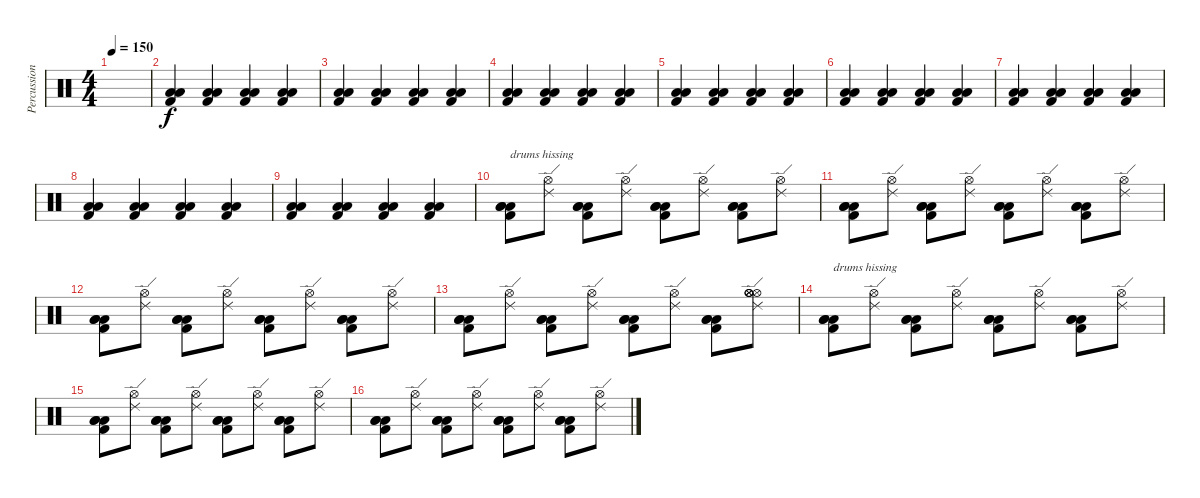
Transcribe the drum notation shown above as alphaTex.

\track ("Percussion" "Percussion") {instrument percussion}
\staff {score}
\articulation defaults
\ts (4 4)
\tempo 150
\clef neutral
\ks c
|
("Kick (hit) 2" "Low Tom (hit)" "Low Tom (hit)").4 ("Kick (hit) 2" "Low Tom (hit)" "Low Tom (hit)").4 ("Kick (hit) 2" "Low Tom (hit)" "Low Tom (hit)").4 ("Kick (hit) 2" "Low Tom (hit)" "Low Tom (hit)").4 |
("Kick (hit) 2" "Low Tom (hit)" "Low Tom (hit)").4 ("Kick (hit) 2" "Low Tom (hit)" "Low Tom (hit)").4 ("Kick (hit) 2" "Low Tom (hit)" "Low Tom (hit)").4 ("Kick (hit) 2" "Low Tom (hit)" "Low Tom (hit)").4 |
("Kick (hit) 2" "Low Tom (hit)" "Low Tom (hit)").4 ("Kick (hit) 2" "Low Tom (hit)" "Low Tom (hit)").4 ("Kick (hit) 2" "Low Tom (hit)" "Low Tom (hit)").4 ("Kick (hit) 2" "Low Tom (hit)" "Low Tom (hit)").4 |
("Kick (hit) 2" "Low Tom (hit)" "Low Tom (hit)").4 ("Kick (hit) 2" "Low Tom (hit)" "Low Tom (hit)").4 ("Kick (hit) 2" "Low Tom (hit)" "Low Tom (hit)").4 ("Kick (hit) 2" "Low Tom (hit)" "Low Tom (hit)").4 |
("Kick (hit) 2" "Low Tom (hit)" "Low Tom (hit)").4 ("Kick (hit) 2" "Low Tom (hit)" "Low Tom (hit)").4 ("Kick (hit) 2" "Low Tom (hit)" "Low Tom (hit)").4 ("Kick (hit) 2" "Low Tom (hit)" "Low Tom (hit)").4 |
("Kick (hit) 2" "Low Tom (hit)" "Low Tom (hit)").4 ("Kick (hit) 2" "Low Tom (hit)" "Low Tom (hit)").4 ("Kick (hit) 2" "Low Tom (hit)" "Low Tom (hit)").4 ("Kick (hit) 2" "Low Tom (hit)" "Low Tom (hit)").4 |
("Kick (hit) 2" "Low Tom (hit)" "Low Tom (hit)").4 ("Kick (hit) 2" "Low Tom (hit)" "Low Tom (hit)").4 ("Kick (hit) 2" "Low Tom (hit)" "Low Tom (hit)").4 ("Kick (hit) 2" "Low Tom (hit)" "Low Tom (hit)").4 |
("Kick (hit) 2" "Low Tom (hit)" "Low Tom (hit)").4 ("Kick (hit) 2" "Low Tom (hit)" "Low Tom (hit)").4 ("Kick (hit) 2" "Low Tom (hit)" "Low Tom (hit)").4 ("Kick (hit) 2" "Low Tom (hit)" "Low Tom (hit)").4 |
("Kick (hit) 2" "Low Tom (hit)" "Low Tom (hit)" "Low Tom (hit)").8{txt "drums hissing"} ("Ride (edge) 2" "Hi-Hat (open)").8 ("Kick (hit) 2" "Low Tom (hit)" "Low Tom (hit)" "Low Tom (hit)").8 ("Ride (edge) 2" "Hi-Hat (open)").8 ("Kick (hit) 2" "Low Tom (hit)" "Low Tom (hit)" "Low Tom (hit)").8 ("Ride (edge) 2" "Hi-Hat (open)").8 ("Kick (hit) 2" "Low Tom (hit)" "Low Tom (hit)" "Low Tom (hit)").8 ("Ride (edge) 2" "Hi-Hat (open)").8 |
("Kick (hit) 2" "Low Tom (hit)" "Low Tom (hit)" "Low Tom (hit)").8 ("Ride (edge) 2" "Hi-Hat (open)").8 ("Kick (hit) 2" "Low Tom (hit)" "Low Tom (hit)" "Low Tom (hit)").8 ("Ride (edge) 2" "Hi-Hat (open)").8 ("Kick (hit) 2" "Low Tom (hit)" "Low Tom (hit)" "Low Tom (hit)").8 ("Ride (edge) 2" "Hi-Hat (open)").8 ("Kick (hit) 2" "Low Tom (hit)" "Low Tom (hit)" "Low Tom (hit)").8 ("Ride (edge) 2" "Hi-Hat (open)").8 |
("Kick (hit) 2" "Low Tom (hit)" "Low Tom (hit)" "Low Tom (hit)").8 ("Ride (edge) 2" "Hi-Hat (open)").8 ("Kick (hit) 2" "Low Tom (hit)" "Low Tom (hit)" "Low Tom (hit)").8 ("Ride (edge) 2" "Hi-Hat (open)").8 ("Kick (hit) 2" "Low Tom (hit)" "Low Tom (hit)" "Low Tom (hit)").8 ("Ride (edge) 2" "Hi-Hat (open)").8 ("Kick (hit) 2" "Low Tom (hit)" "Low Tom (hit)" "Low Tom (hit)").8 ("Ride (edge) 2" "Hi-Hat (open)").8 |
("Kick (hit) 2" "Low Tom (hit)" "Low Tom (hit)" "Low Tom (hit)").8 ("Ride (edge) 2" "Hi-Hat (open)").8 ("Kick (hit) 2" "Low Tom (hit)" "Low Tom (hit)" "Low Tom (hit)").8 ("Ride (edge) 2" "Hi-Hat (open)").8 ("Kick (hit) 2" "Low Tom (hit)" "Low Tom (hit)" "Low Tom (hit)").8 ("Ride (edge) 2" "Hi-Hat (open)").8 ("Kick (hit) 2" "Low Tom (hit)" "Low Tom (hit)" "Low Tom (hit)").8 ("Hi-Hat (open)" "Hi-Hat (open)" "Hi-Hat (open)" "Ride (edge) 2" "Hi-Hat (open)").8 |
("Kick (hit) 2" "Low Tom (hit)" "Low Tom (hit)" "Low Tom (hit)").8{txt "drums hissing"} ("Ride (edge) 2" "Hi-Hat (open)").8 ("Kick (hit) 2" "Low Tom (hit)" "Low Tom (hit)" "Low Tom (hit)").8 ("Ride (edge) 2" "Hi-Hat (open)").8 ("Kick (hit) 2" "Low Tom (hit)" "Low Tom (hit)" "Low Tom (hit)").8 ("Ride (edge) 2" "Hi-Hat (open)").8 ("Kick (hit) 2" "Low Tom (hit)" "Low Tom (hit)" "Low Tom (hit)").8 ("Ride (edge) 2" "Hi-Hat (open)").8 |
("Kick (hit) 2" "Low Tom (hit)" "Low Tom (hit)" "Low Tom (hit)").8 ("Ride (edge) 2" "Hi-Hat (open)").8 ("Kick (hit) 2" "Low Tom (hit)" "Low Tom (hit)" "Low Tom (hit)").8 ("Ride (edge) 2" "Hi-Hat (open)").8 ("Kick (hit) 2" "Low Tom (hit)" "Low Tom (hit)" "Low Tom (hit)").8 ("Ride (edge) 2" "Hi-Hat (open)").8 ("Kick (hit) 2" "Low Tom (hit)" "Low Tom (hit)" "Low Tom (hit)").8 ("Ride (edge) 2" "Hi-Hat (open)").8 |
("Kick (hit) 2" "Low Tom (hit)" "Low Tom (hit)" "Low Tom (hit)").8 ("Ride (edge) 2" "Hi-Hat (open)").8 ("Kick (hit) 2" "Low Tom (hit)" "Low Tom (hit)" "Low Tom (hit)").8 ("Ride (edge) 2" "Hi-Hat (open)").8 ("Kick (hit) 2" "Low Tom (hit)" "Low Tom (hit)" "Low Tom (hit)").8 ("Ride (edge) 2" "Hi-Hat (open)").8 ("Kick (hit) 2" "Low Tom (hit)" "Low Tom (hit)" "Low Tom (hit)").8 ("Ride (edge) 2" "Hi-Hat (open)").8
